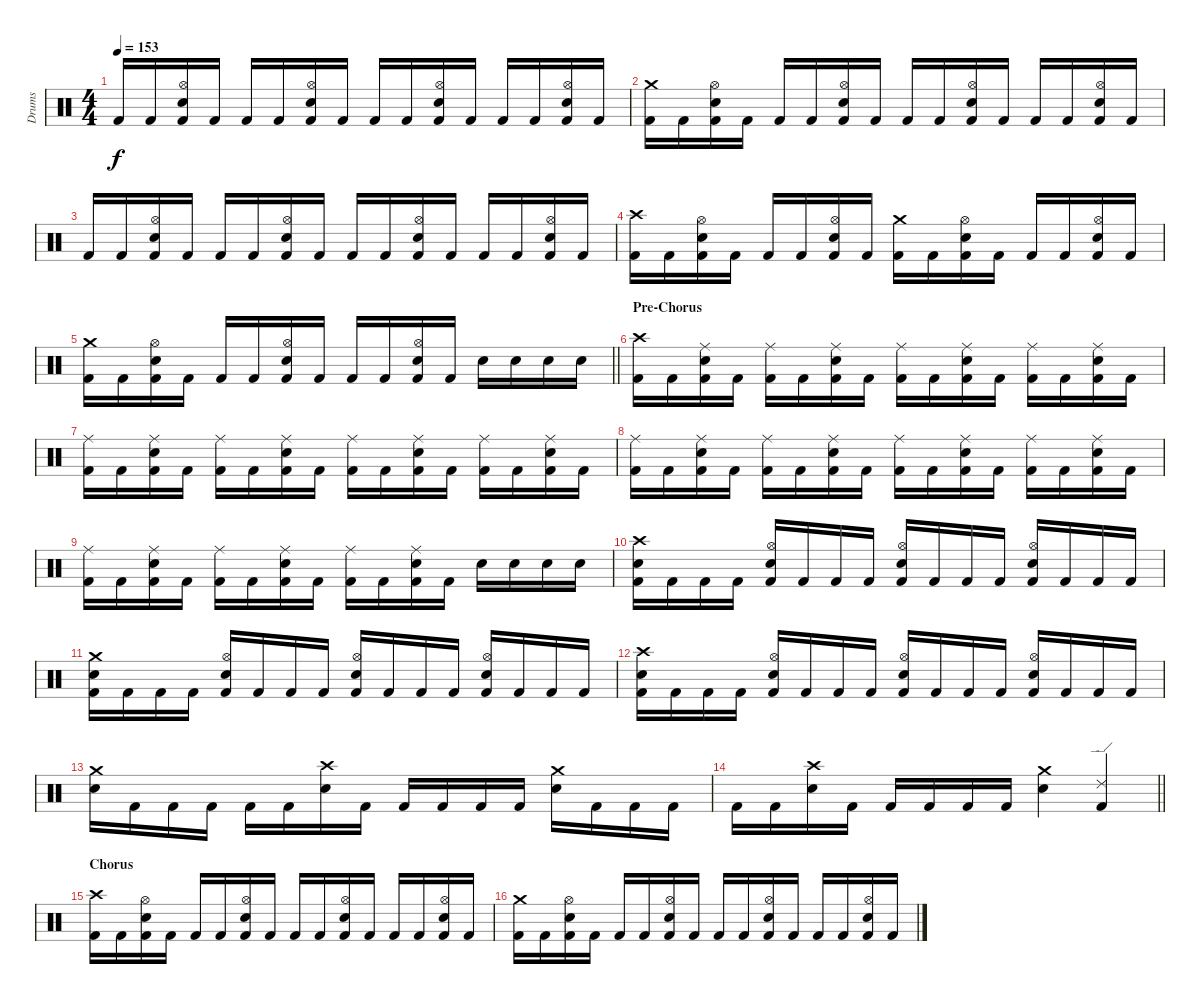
\track ("Drums" "Drums") {instrument percussion}
\staff {score}
\articulation defaults
\ts (4 4)
\tempo 153
\clef neutral
\ks c "Kick (hit) 2".16{dy f} "Kick (hit) 2".16
("Hi-Hat (open)" "Snare (hit) 2" "Kick (hit) 2").16 "Kick (hit) 2".16 "Kick (hit) 2".16 "Kick (hit) 2".16 ("Hi-Hat (open)" "Snare (hit) 2" "Kick (hit) 2").16 "Kick (hit) 2".16 "Kick (hit) 2".16 "Kick (hit) 2".16 ("Hi-Hat (open)" "Snare (hit) 2" "Kick (hit) 2").16 "Kick (hit) 2".16 "Kick (hit) 2".16 "Kick (hit) 2".16 ("Hi-Hat (open)" "Snare (hit) 2" "Kick (hit) 2").16 "Kick (hit) 2".16 |
("Crash medium (hit)" "Kick (hit) 2").16 "Kick (hit) 2".16 ("Hi-Hat (open)" "Snare (hit) 2" "Kick (hit) 2").16 "Kick (hit) 2".16 "Kick (hit) 2".16 "Kick (hit) 2".16 ("Hi-Hat (open)" "Snare (hit) 2" "Kick (hit) 2").16 "Kick (hit) 2".16 "Kick (hit) 2".16 "Kick (hit) 2".16 ("Hi-Hat (open)" "Snare (hit) 2" "Kick (hit) 2").16 "Kick (hit) 2".16 "Kick (hit) 2".16 "Kick (hit) 2".16 ("Hi-Hat (open)" "Snare (hit) 2" "Kick (hit) 2").16 "Kick (hit) 2".16 |
"Kick (hit) 2".16 "Kick (hit) 2".16 ("Hi-Hat (open)" "Snare (hit) 2" "Kick (hit) 2").16 "Kick (hit) 2".16 "Kick (hit) 2".16 "Kick (hit) 2".16 ("Hi-Hat (open)" "Snare (hit) 2" "Kick (hit) 2").16 "Kick (hit) 2".16 "Kick (hit) 2".16 "Kick (hit) 2".16 ("Hi-Hat (open)" "Snare (hit) 2" "Kick (hit) 2").16 "Kick (hit) 2".16 "Kick (hit) 2".16 "Kick (hit) 2".16 ("Hi-Hat (open)" "Snare (hit) 2" "Kick (hit) 2").16 "Kick (hit) 2".16 |
("Crash high (hit)" "Kick (hit) 2").16 "Kick (hit) 2".16 ("Hi-Hat (open)" "Snare (hit) 2" "Kick (hit) 2").16 "Kick (hit) 2".16 "Kick (hit) 2".16 "Kick (hit) 2".16 ("Hi-Hat (open)" "Snare (hit) 2" "Kick (hit) 2").16 "Kick (hit) 2".16 ("Crash medium (hit)" "Kick (hit) 2").16 "Kick (hit) 2".16 ("Hi-Hat (open)" "Snare (hit) 2" "Kick (hit) 2").16 "Kick (hit) 2".16 "Kick (hit) 2".16 "Kick (hit) 2".16 ("Hi-Hat (open)" "Snare (hit) 2" "Kick (hit) 2").16 "Kick (hit) 2".16 |
\barLineRight lightlight
("Crash medium (hit)" "Kick (hit) 2").16 "Kick (hit) 2".16 ("Hi-Hat (open)" "Snare (hit) 2" "Kick (hit) 2").16 "Kick (hit) 2".16 "Kick (hit) 2".16 "Kick (hit) 2".16 ("Hi-Hat (open)" "Snare (hit) 2" "Kick (hit) 2").16 "Kick (hit) 2".16 "Kick (hit) 2".16 "Kick (hit) 2".16 ("Hi-Hat (open)" "Snare (hit) 2" "Kick (hit) 2").16 "Kick (hit) 2".16 "Snare (hit) 2".16 "Snare (hit) 2".16 "Snare (hit) 2".16 "Snare (hit) 2".16 |
\section ("" "Pre-Chorus")
("Crash high (hit)" "Kick (hit) 2").16 "Kick (hit) 2".16 ("Ride (middle)" "Snare (hit) 2" "Kick (hit) 2").16 "Kick (hit) 2".16 ("Ride (middle)" "Kick (hit) 2").16 "Kick (hit) 2".16 ("Ride (middle)" "Snare (hit) 2" "Kick (hit) 2").16 "Kick (hit) 2".16 ("Ride (middle)" "Kick (hit) 2").16 "Kick (hit) 2".16 ("Ride (middle)" "Snare (hit) 2" "Kick (hit) 2").16 "Kick (hit) 2".16 ("Ride (middle)" "Kick (hit) 2").16 "Kick (hit) 2".16 ("Ride (middle)" "Snare (hit) 2" "Kick (hit) 2").16 "Kick (hit) 2".16 |
("Ride (middle)" "Kick (hit) 2").16 "Kick (hit) 2".16 ("Ride (middle)" "Snare (hit) 2" "Kick (hit) 2").16 "Kick (hit) 2".16 ("Ride (middle)" "Kick (hit) 2").16 "Kick (hit) 2".16 ("Ride (middle)" "Snare (hit) 2" "Kick (hit) 2").16 "Kick (hit) 2".16 ("Ride (middle)" "Kick (hit) 2").16 "Kick (hit) 2".16 ("Ride (middle)" "Snare (hit) 2" "Kick (hit) 2").16 "Kick (hit) 2".16 ("Ride (middle)" "Kick (hit) 2").16 "Kick (hit) 2".16 ("Ride (middle)" "Snare (hit) 2" "Kick (hit) 2").16 "Kick (hit) 2".16 |
("Ride (middle)" "Kick (hit) 2").16 "Kick (hit) 2".16 ("Ride (middle)" "Snare (hit) 2" "Kick (hit) 2").16 "Kick (hit) 2".16 ("Ride (middle)" "Kick (hit) 2").16 "Kick (hit) 2".16 ("Ride (middle)" "Snare (hit) 2" "Kick (hit) 2").16 "Kick (hit) 2".16 ("Ride (middle)" "Kick (hit) 2").16 "Kick (hit) 2".16 ("Ride (middle)" "Snare (hit) 2" "Kick (hit) 2").16 "Kick (hit) 2".16 ("Ride (middle)" "Kick (hit) 2").16 "Kick (hit) 2".16 ("Ride (middle)" "Snare (hit) 2" "Kick (hit) 2").16 "Kick (hit) 2".16 |
("Ride (middle)" "Kick (hit) 2").16 "Kick (hit) 2".16 ("Ride (middle)" "Snare (hit) 2" "Kick (hit) 2").16 "Kick (hit) 2".16 ("Ride (middle)" "Kick (hit) 2").16 "Kick (hit) 2".16 ("Ride (middle)" "Snare (hit) 2" "Kick (hit) 2").16 "Kick (hit) 2".16 ("Ride (middle)" "Kick (hit) 2").16 "Kick (hit) 2".16 ("Ride (middle)" "Snare (hit) 2" "Kick (hit) 2").16 "Kick (hit) 2".16 "Snare (hit) 2".16 "Snare (hit) 2".16 "Snare (hit) 2".16 "Snare (hit) 2".16 |
("Crash high (hit)" "Snare (hit) 2" "Kick (hit) 2").16 "Kick (hit) 2".16 "Kick (hit) 2".16 "Kick (hit) 2".16 ("Hi-Hat (open)" "Snare (hit) 2" "Kick (hit) 2").16 "Kick (hit) 2".16 "Kick (hit) 2".16 "Kick (hit) 2".16 ("Hi-Hat (open)" "Snare (hit) 2" "Kick (hit) 2").16 "Kick (hit) 2".16 "Kick (hit) 2".16 "Kick (hit) 2".16 ("Hi-Hat (open)" "Snare (hit) 2" "Kick (hit) 2").16 "Kick (hit) 2".16 "Kick (hit) 2".16 "Kick (hit) 2".16 |
("Crash medium (hit)" "Snare (hit) 2" "Kick (hit) 2").16 "Kick (hit) 2".16 "Kick (hit) 2".16 "Kick (hit) 2".16 ("Hi-Hat (open)" "Snare (hit) 2" "Kick (hit) 2").16 "Kick (hit) 2".16 "Kick (hit) 2".16 "Kick (hit) 2".16 ("Hi-Hat (open)" "Snare (hit) 2" "Kick (hit) 2").16 "Kick (hit) 2".16 "Kick (hit) 2".16 "Kick (hit) 2".16 ("Hi-Hat (open)" "Snare (hit) 2" "Kick (hit) 2").16 "Kick (hit) 2".16 "Kick (hit) 2".16 "Kick (hit) 2".16 |
("Crash high (hit)" "Snare (hit) 2" "Kick (hit) 2").16 "Kick (hit) 2".16 "Kick (hit) 2".16 "Kick (hit) 2".16 ("Hi-Hat (open)" "Snare (hit) 2" "Kick (hit) 2").16 "Kick (hit) 2".16 "Kick (hit) 2".16 "Kick (hit) 2".16 ("Hi-Hat (open)" "Snare (hit) 2" "Kick (hit) 2").16 "Kick (hit) 2".16 "Kick (hit) 2".16 "Kick (hit) 2".16 ("Hi-Hat (open)" "Snare (hit) 2" "Kick (hit) 2").16 "Kick (hit) 2".16 "Kick (hit) 2".16 "Kick (hit) 2".16 |
("Crash medium (hit)" "Snare (hit) 2").16 "Kick (hit) 2".16 "Kick (hit) 2".16 "Kick (hit) 2".16 "Kick (hit) 2".16 "Kick (hit) 2".16 ("Crash high (hit)" "Snare (hit) 2").16 "Kick (hit) 2".16 "Kick (hit) 2".16 "Kick (hit) 2".16 "Kick (hit) 2".16 "Kick (hit) 2".16 ("Crash medium (hit)" "Snare (hit) 2").16 "Kick (hit) 2".16 "Kick (hit) 2".16 "Kick (hit) 2".16 |
\barLineRight lightlight "Kick (hit) 2".16 "Kick (hit) 2".16
("Crash high (hit)" "Snare (hit) 2").16 "Kick (hit) 2".16 "Kick (hit) 2".16 "Kick (hit) 2".16 "Kick (hit) 2".16 "Kick (hit) 2".16 ("Crash medium (hit)" "Snare (hit) 2").4 ("Ride (edge) 2" "Kick (hit) 2").4 |
\section ("" "Chorus")
("Crash high (hit)" "Kick (hit) 2").16 "Kick (hit) 2".16 ("Hi-Hat (open)" "Snare (hit) 2" "Kick (hit) 2").16 "Kick (hit) 2".16 "Kick (hit) 2".16 "Kick (hit) 2".16 ("Hi-Hat (open)" "Snare (hit) 2" "Kick (hit) 2").16 "Kick (hit) 2".16 "Kick (hit) 2".16 "Kick (hit) 2".16 ("Hi-Hat (open)" "Snare (hit) 2" "Kick (hit) 2").16 "Kick (hit) 2".16 "Kick (hit) 2".16 "Kick (hit) 2".16 ("Hi-Hat (open)" "Snare (hit) 2" "Kick (hit) 2").16 "Kick (hit) 2".16 |
("Crash medium (hit)" "Kick (hit) 2").16 "Kick (hit) 2".16 ("Hi-Hat (open)" "Snare (hit) 2" "Kick (hit) 2").16 "Kick (hit) 2".16 "Kick (hit) 2".16 "Kick (hit) 2".16 ("Hi-Hat (open)" "Snare (hit) 2" "Kick (hit) 2").16 "Kick (hit) 2".16 "Kick (hit) 2".16 "Kick (hit) 2".16 ("Hi-Hat (open)" "Snare (hit) 2" "Kick (hit) 2").16 "Kick (hit) 2".16 "Kick (hit) 2".16 "Kick (hit) 2".16 ("Hi-Hat (open)" "Snare (hit) 2" "Kick (hit) 2").16 "Kick (hit) 2".16
